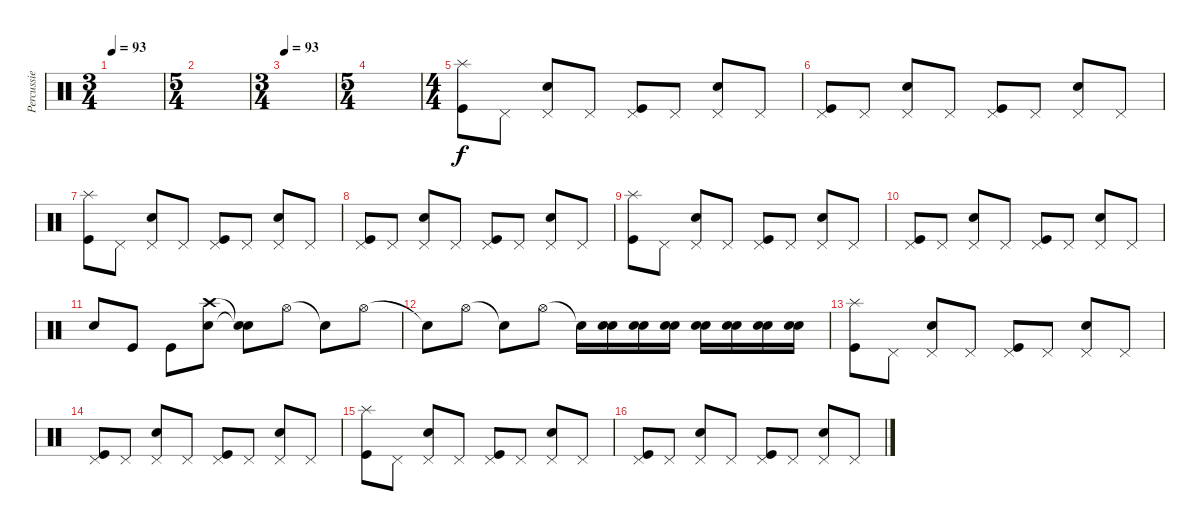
\track ("Percussie" "Percussie") {instrument percussion}
\staff {score}
\articulation defaults
\ts (3 4)
\tempo 93
\clef neutral
\ks c
|
\ts (5 4)
|
\ts (3 4)
\tempo 93
|
\ts (5 4)
|
\ts (4 4)
("Splash (hit)" "Kick (hit)").8 "Pedal Hi-Hat (hit)".8 ("Electric Snare (hit)" "Pedal Hi-Hat (hit)").8 "Pedal Hi-Hat (hit)".8 ("Pedal Hi-Hat (hit)" "Kick (hit)").8 "Pedal Hi-Hat (hit)".8 ("Electric Snare (hit)" "Pedal Hi-Hat (hit)").8 "Pedal Hi-Hat (hit)".8 |
("Pedal Hi-Hat (hit)" "Kick (hit)").8 "Pedal Hi-Hat (hit)".8 ("Electric Snare (hit)" "Pedal Hi-Hat (hit)").8 "Pedal Hi-Hat (hit)".8 ("Pedal Hi-Hat (hit)" "Kick (hit)").8 "Pedal Hi-Hat (hit)".8 ("Electric Snare (hit)" "Pedal Hi-Hat (hit)").8 "Pedal Hi-Hat (hit)".8 |
("Splash (hit)" "Kick (hit)").8 "Pedal Hi-Hat (hit)".8 ("Electric Snare (hit)" "Pedal Hi-Hat (hit)").8 "Pedal Hi-Hat (hit)".8 ("Pedal Hi-Hat (hit)" "Kick (hit)").8 "Pedal Hi-Hat (hit)".8 ("Electric Snare (hit)" "Pedal Hi-Hat (hit)").8 "Pedal Hi-Hat (hit)".8 |
("Pedal Hi-Hat (hit)" "Kick (hit)").8 "Pedal Hi-Hat (hit)".8 ("Electric Snare (hit)" "Pedal Hi-Hat (hit)").8 "Pedal Hi-Hat (hit)".8 ("Pedal Hi-Hat (hit)" "Kick (hit)").8 "Pedal Hi-Hat (hit)".8 ("Electric Snare (hit)" "Pedal Hi-Hat (hit)").8 "Pedal Hi-Hat (hit)".8 |
("Splash (hit)" "Kick (hit)").8 "Pedal Hi-Hat (hit)".8 ("Electric Snare (hit)" "Pedal Hi-Hat (hit)").8 "Pedal Hi-Hat (hit)".8 ("Pedal Hi-Hat (hit)" "Kick (hit)").8 "Pedal Hi-Hat (hit)".8 ("Electric Snare (hit)" "Pedal Hi-Hat (hit)").8 "Pedal Hi-Hat (hit)".8 |
("Pedal Hi-Hat (hit)" "Kick (hit)").8 "Pedal Hi-Hat (hit)".8 ("Electric Snare (hit)" "Pedal Hi-Hat (hit)").8 "Pedal Hi-Hat (hit)".8 ("Pedal Hi-Hat (hit)" "Kick (hit)").8 "Pedal Hi-Hat (hit)".8 ("Electric Snare (hit)" "Pedal Hi-Hat (hit)").8 "Pedal Hi-Hat (hit)".8 |
"Electric Snare (hit)".8 "Kick (hit)".8 "Kick (hit)".8 ("Crash high (hit)" "Electric Snare (hit)").8 ("Snare (hit)"{t} "Snare (hit)"{t}).8 "Hi-Hat (open)".8 "Snare (hit)"{t}.8 "Hi-Hat (open)".8 |
"Snare (hit)"{t}.8 "Hi-Hat (open)".8 "Snare (hit)"{t}.8 "Hi-Hat (open)".8 "Snare (hit)"{t}.16 ("Electric Snare (hit)" "Snare (hit) 2").16 ("Electric Snare (hit)" "Snare (hit) 2").16 ("Electric Snare (hit)" "Snare (hit) 2").16 ("Electric Snare (hit)" "Snare (hit) 2").16 ("Electric Snare (hit)" "Snare (hit) 2").16 ("Electric Snare (hit)" "Snare (hit) 2").16 ("Electric Snare (hit)" "Snare (hit) 2").16 |
("Splash (hit)" "Kick (hit)").8 "Pedal Hi-Hat (hit)".8 ("Electric Snare (hit)" "Pedal Hi-Hat (hit)").8 "Pedal Hi-Hat (hit)".8 ("Pedal Hi-Hat (hit)" "Kick (hit)").8 "Pedal Hi-Hat (hit)".8 ("Electric Snare (hit)" "Pedal Hi-Hat (hit)").8 "Pedal Hi-Hat (hit)".8 |
("Pedal Hi-Hat (hit)" "Kick (hit)").8 "Pedal Hi-Hat (hit)".8 ("Electric Snare (hit)" "Pedal Hi-Hat (hit)").8 "Pedal Hi-Hat (hit)".8 ("Pedal Hi-Hat (hit)" "Kick (hit)").8 "Pedal Hi-Hat (hit)".8 ("Electric Snare (hit)" "Pedal Hi-Hat (hit)").8 "Pedal Hi-Hat (hit)".8 |
("Splash (hit)" "Kick (hit)").8 "Pedal Hi-Hat (hit)".8 ("Electric Snare (hit)" "Pedal Hi-Hat (hit)").8 "Pedal Hi-Hat (hit)".8 ("Pedal Hi-Hat (hit)" "Kick (hit)").8 "Pedal Hi-Hat (hit)".8 ("Electric Snare (hit)" "Pedal Hi-Hat (hit)").8 "Pedal Hi-Hat (hit)".8 |
("Pedal Hi-Hat (hit)" "Kick (hit)").8 "Pedal Hi-Hat (hit)".8 ("Electric Snare (hit)" "Pedal Hi-Hat (hit)").8 "Pedal Hi-Hat (hit)".8 ("Pedal Hi-Hat (hit)" "Kick (hit)").8 "Pedal Hi-Hat (hit)".8 ("Electric Snare (hit)" "Pedal Hi-Hat (hit)").8 "Pedal Hi-Hat (hit)".8
